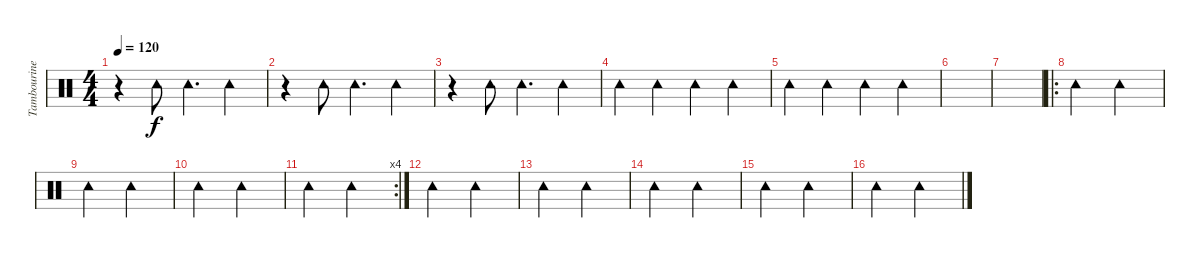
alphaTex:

\track ("Tambourine" "Tambourine") {instrument percussion}
\staff {score}
\articulation defaults
\ts (4 4)
\tempo 120
\clef neutral
\ks c
r.4{dy f} "Tambourine (hit)".8 "Tambourine (hit)".4{d} "Tambourine (hit)".4 |
r.4 "Tambourine (hit)".8 "Tambourine (hit)".4{d} "Tambourine (hit)".4 |
r.4 "Tambourine (hit)".8 "Tambourine (hit)".4{d} "Tambourine (hit)".4 |
"Tambourine (hit)".4 "Tambourine (hit)".4 "Tambourine (hit)".4 "Tambourine (hit)".4 |
"Tambourine (hit)".4 "Tambourine (hit)".4 "Tambourine (hit)".4 "Tambourine (hit)".4 |
|
|
\ro "Tambourine (hit)".2 "Tambourine (hit)".2
|
"Tambourine (hit)".2 "Tambourine (hit)".2 |
"Tambourine (hit)".2 "Tambourine (hit)".2 |
\rc 4 "Tambourine (hit)".2 "Tambourine (hit)".2
|
"Tambourine (hit)".2 "Tambourine (hit)".2 |
"Tambourine (hit)".2 "Tambourine (hit)".2 |
"Tambourine (hit)".2 "Tambourine (hit)".2 |
"Tambourine (hit)".2 "Tambourine (hit)".2 |
"Tambourine (hit)".2 "Tambourine (hit)".2
